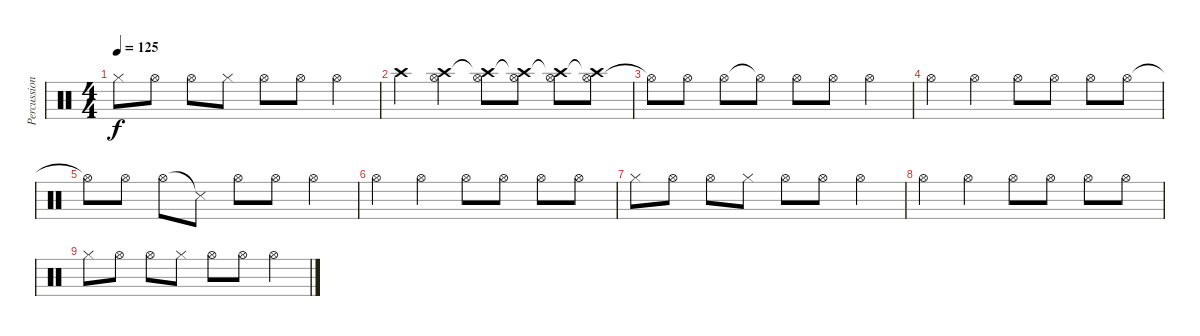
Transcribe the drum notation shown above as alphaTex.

\track ("Percussions" "Percussion") {instrument percussion}
\staff {score}
\articulation defaults
\ts (4 4)
\tempo 125
\clef neutral
\ks c "Hi-Hat (closed)".8{dy f} "Hi-Hat (open)".8 "Hi-Hat (open)".8 "Hi-Hat (closed)".8 "Hi-Hat (open)".8 "Hi-Hat (open)".8 "Hi-Hat (open)".4
|
"Crash high (hit)".4{volume 5} ("Hi-Hat (open)" "Crash high (hit)").4 ("Hi-Hat (open)" "Crash high (hit)"{t}).8 ("Hi-Hat (open)" "Crash high (hit)"{t}).8 ("Hi-Hat (open)" "Crash high (hit)"{t}).8 ("Hi-Hat (open)" "Crash high (hit)"{t}).8 |
"Hi-Hat (open)"{t}.8 "Hi-Hat (open)".8 "Hi-Hat (open)".8 "Hi-Hat (open)"{t}.8 "Hi-Hat (open)".8 "Hi-Hat (open)".8 "Hi-Hat (open)".4 |
"Hi-Hat (open)".4 "Hi-Hat (open)".4 "Hi-Hat (open)".8 "Hi-Hat (open)".8 "Hi-Hat (open)".8 "Hi-Hat (open)".8 |
"Hi-Hat (open)"{t}.8 "Hi-Hat (open)".8 "Hi-Hat (open)".8 "Snare (side stick) 3"{t}.8 "Hi-Hat (open)".8 "Hi-Hat (open)".8 "Hi-Hat (open)".4 |
"Hi-Hat (open)".4 "Hi-Hat (open)".4 "Hi-Hat (open)".8 "Hi-Hat (open)".8 "Hi-Hat (open)".8 "Hi-Hat (open)".8 |
"Hi-Hat (closed)".8{volume 0} "Hi-Hat (open)".8 "Hi-Hat (open)".8 "Hi-Hat (closed)".8 "Hi-Hat (open)".8 "Hi-Hat (open)".8 "Hi-Hat (open)".4 |
"Hi-Hat (open)".4 "Hi-Hat (open)".4 "Hi-Hat (open)".8 "Hi-Hat (open)".8 "Hi-Hat (open)".8 "Hi-Hat (open)".8 |
"Hi-Hat (closed)".8 "Hi-Hat (open)".8 "Hi-Hat (open)".8 "Hi-Hat (closed)".8 "Hi-Hat (open)".8 "Hi-Hat (open)".8 "Hi-Hat (open)".4
